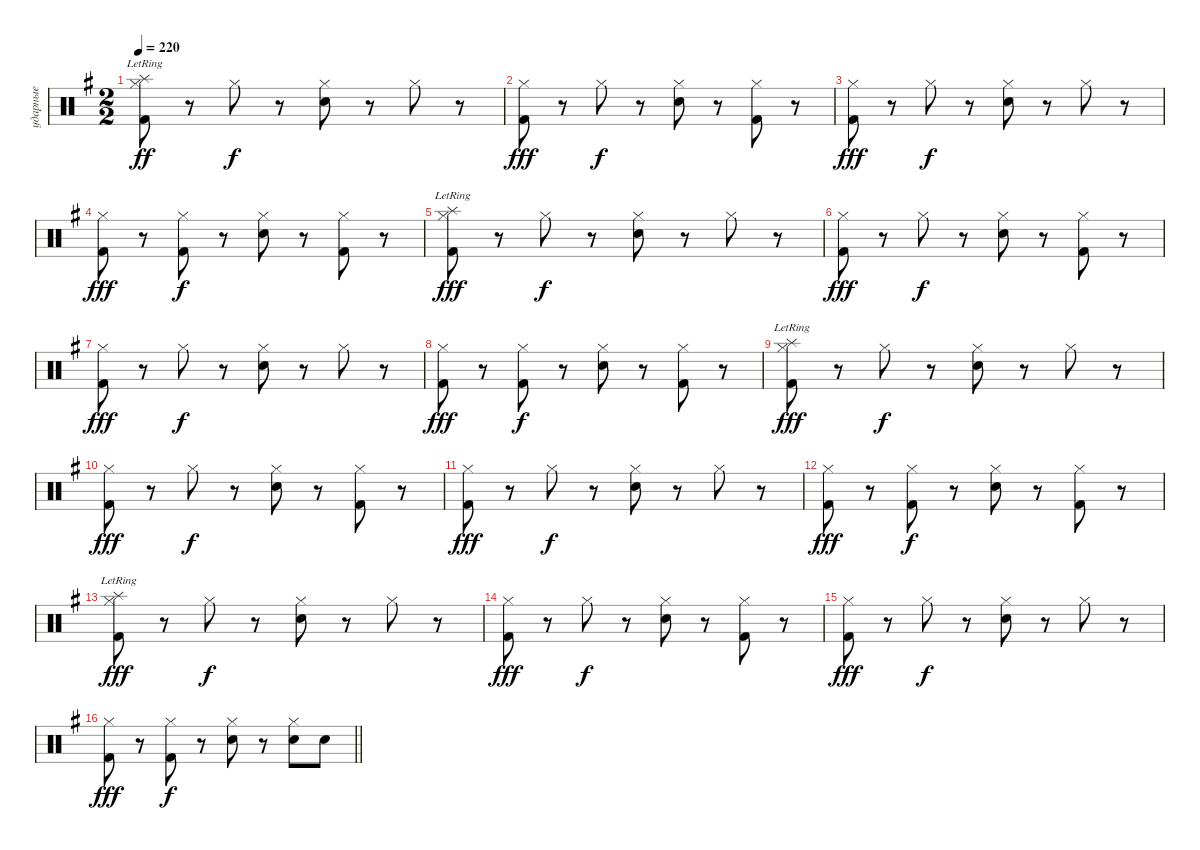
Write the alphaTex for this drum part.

\track ("ударные" "ударные") {instrument percussion}
\staff {score}
\articulation defaults
\ts (2 2)
\section ("" "")
\tempo 220
\clef neutral
\ks eminor
("Hi-Hat (closed)" "Splash (hit)"{lr} "Kick (hit) 2").8{dy ff} r.8 "Hi-Hat (closed)".8{dy f} r.8 ("Hi-Hat (closed)" "Snare (hit) 2").8 r.8 "Hi-Hat (closed)".8 r.8 |
("Hi-Hat (closed)" "Kick (hit) 2").8{dy fff} r.8 "Hi-Hat (closed)".8{dy f} r.8 ("Hi-Hat (closed)" "Snare (hit) 2").8 r.8 ("Hi-Hat (closed)" "Kick (hit) 2").8 r.8 |
("Hi-Hat (closed)" "Kick (hit) 2").8{dy fff} r.8 "Hi-Hat (closed)".8{dy f} r.8 ("Hi-Hat (closed)" "Snare (hit) 2").8 r.8 "Hi-Hat (closed)".8 r.8 |
("Hi-Hat (closed)" "Kick (hit) 2").8{dy fff} r.8 ("Hi-Hat (closed)" "Kick (hit) 2").8{dy f} r.8 ("Hi-Hat (closed)" "Snare (hit) 2").8 r.8 ("Hi-Hat (closed)" "Kick (hit) 2").8 r.8 |
("Hi-Hat (closed)" "Splash (hit)"{lr} "Kick (hit) 2").8{dy fff} r.8 "Hi-Hat (closed)".8{dy f} r.8 ("Hi-Hat (closed)" "Snare (hit) 2").8 r.8 "Hi-Hat (closed)".8 r.8 |
("Hi-Hat (closed)" "Kick (hit) 2").8{dy fff} r.8 "Hi-Hat (closed)".8{dy f} r.8 ("Hi-Hat (closed)" "Snare (hit) 2").8 r.8 ("Hi-Hat (closed)" "Kick (hit) 2").8 r.8 |
("Hi-Hat (closed)" "Kick (hit) 2").8{dy fff} r.8 "Hi-Hat (closed)".8{dy f} r.8 ("Hi-Hat (closed)" "Snare (hit) 2").8 r.8 "Hi-Hat (closed)".8 r.8 |
("Hi-Hat (closed)" "Kick (hit) 2").8{dy fff} r.8 ("Hi-Hat (closed)" "Kick (hit) 2").8{dy f} r.8 ("Hi-Hat (closed)" "Snare (hit) 2").8 r.8 ("Hi-Hat (closed)" "Kick (hit) 2").8 r.8 |
("Hi-Hat (closed)" "Splash (hit)"{lr} "Kick (hit) 2").8{dy fff} r.8 "Hi-Hat (closed)".8{dy f} r.8 ("Hi-Hat (closed)" "Snare (hit) 2").8 r.8 "Hi-Hat (closed)".8 r.8 |
("Hi-Hat (closed)" "Kick (hit) 2").8{dy fff} r.8 "Hi-Hat (closed)".8{dy f} r.8 ("Hi-Hat (closed)" "Snare (hit) 2").8 r.8 ("Hi-Hat (closed)" "Kick (hit) 2").8 r.8 |
("Hi-Hat (closed)" "Kick (hit) 2").8{dy fff} r.8 "Hi-Hat (closed)".8{dy f} r.8 ("Hi-Hat (closed)" "Snare (hit) 2").8 r.8 "Hi-Hat (closed)".8 r.8 |
("Hi-Hat (closed)" "Kick (hit) 2").8{dy fff} r.8 ("Hi-Hat (closed)" "Kick (hit) 2").8{dy f} r.8 ("Hi-Hat (closed)" "Snare (hit) 2").8 r.8 ("Hi-Hat (closed)" "Kick (hit) 2").8 r.8 |
("Hi-Hat (closed)" "Splash (hit)"{lr} "Kick (hit) 2").8{dy fff} r.8 "Hi-Hat (closed)".8{dy f} r.8 ("Hi-Hat (closed)" "Snare (hit) 2").8 r.8 "Hi-Hat (closed)".8 r.8 |
("Hi-Hat (closed)" "Kick (hit) 2").8{dy fff} r.8 "Hi-Hat (closed)".8{dy f} r.8 ("Hi-Hat (closed)" "Snare (hit) 2").8 r.8 ("Hi-Hat (closed)" "Kick (hit) 2").8 r.8 |
("Hi-Hat (closed)" "Kick (hit) 2").8{dy fff} r.8 "Hi-Hat (closed)".8{dy f} r.8 ("Hi-Hat (closed)" "Snare (hit) 2").8 r.8 "Hi-Hat (closed)".8 r.8 |
\barLineRight lightlight
("Hi-Hat (closed)" "Kick (hit) 2").8{dy fff} r.8 ("Hi-Hat (closed)" "Kick (hit) 2").8{dy f} r.8 ("Hi-Hat (closed)" "Snare (hit) 2").8 r.8 ("Hi-Hat (closed)" "Snare (hit) 2").8 "Snare (hit) 2".8
